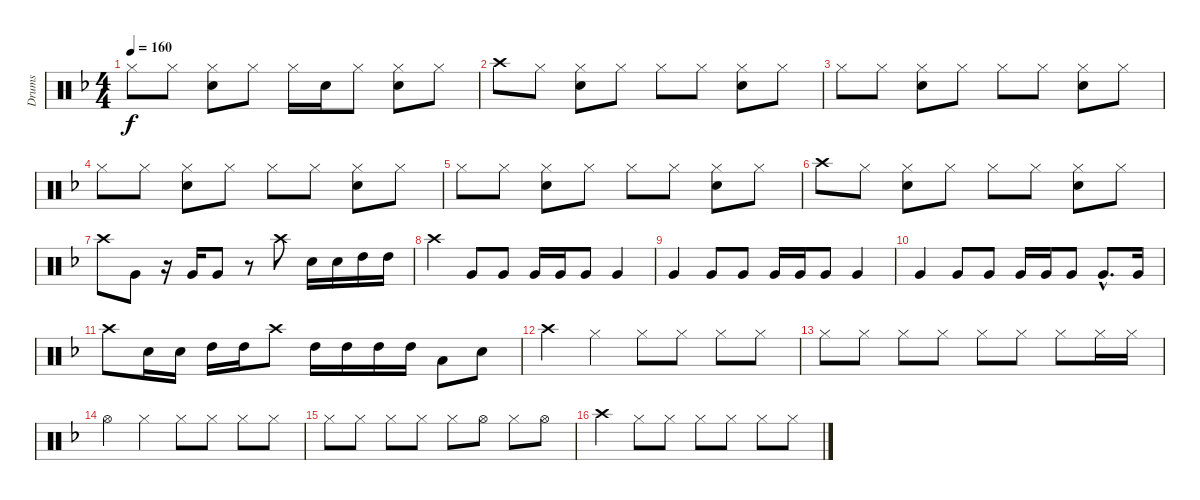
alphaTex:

\track ("Drums" "Drums") {instrument percussion}
\staff {score}
\articulation defaults
\ts (4 4)
\tempo 160
\clef neutral
\ks f "Hi-Hat (closed)".8{dy f} "Hi-Hat (closed)".8
("Hi-Hat (closed)" "Snare (hit) 2").8 "Hi-Hat (closed)".8 "Hi-Hat (closed)".16 "Snare (hit) 2".16 "Hi-Hat (closed)".8 ("Hi-Hat (closed)" "Snare (hit) 2").8 "Hi-Hat (closed)".8 |
"Crash high (hit)".8 "Hi-Hat (closed)".8 ("Hi-Hat (closed)" "Snare (hit) 2").8 "Hi-Hat (closed)".8 "Hi-Hat (closed)".8 "Hi-Hat (closed)".8 ("Hi-Hat (closed)" "Snare (hit) 2").8 "Hi-Hat (closed)".8 |
"Hi-Hat (closed)".8 "Hi-Hat (closed)".8 ("Hi-Hat (closed)" "Snare (hit) 2").8 "Hi-Hat (closed)".8 "Hi-Hat (closed)".8 "Hi-Hat (closed)".8 ("Hi-Hat (closed)" "Snare (hit) 2").8 "Hi-Hat (closed)".8 |
"Hi-Hat (closed)".8 "Hi-Hat (closed)".8 ("Hi-Hat (closed)" "Snare (hit) 2").8 "Hi-Hat (closed)".8 "Hi-Hat (closed)".8 "Hi-Hat (closed)".8 ("Hi-Hat (closed)" "Snare (hit) 2").8 "Hi-Hat (closed)".8 |
"Hi-Hat (closed)".8 "Hi-Hat (closed)".8 ("Hi-Hat (closed)" "Snare (hit) 2").8 "Hi-Hat (closed)".8 "Hi-Hat (closed)".8 "Hi-Hat (closed)".8 ("Hi-Hat (closed)" "Snare (hit) 2").8 "Hi-Hat (closed)".8 |
"Crash high (hit)".8 "Hi-Hat (closed)".8 ("Hi-Hat (closed)" "Snare (hit) 2").8 "Hi-Hat (closed)".8 "Hi-Hat (closed)".8 "Hi-Hat (closed)".8 ("Hi-Hat (closed)" "Snare (hit) 2").8 "Hi-Hat (closed)".8 |
"Crash high (hit)".8 "Very Low Tom (hit)".8 r.16 "Very Low Tom (hit)".16 "Very Low Tom (hit)".8 r.8 "Crash high (hit)".8 "Snare (hit) 2".16 "Snare (hit) 2".16 "High Tom (hit)".16 "High Tom (hit)".16 |
"Crash high (hit)".4 "Very Low Tom (hit)".8 "Very Low Tom (hit)".8 "Very Low Tom (hit)".16 "Very Low Tom (hit)".16 "Very Low Tom (hit)".8 "Very Low Tom (hit)".4 |
"Very Low Tom (hit)".4 "Very Low Tom (hit)".8 "Very Low Tom (hit)".8 "Very Low Tom (hit)".16 "Very Low Tom (hit)".16 "Very Low Tom (hit)".8 "Very Low Tom (hit)".4 |
"Very Low Tom (hit)".4 "Very Low Tom (hit)".8 "Very Low Tom (hit)".8 "Very Low Tom (hit)".16 "Very Low Tom (hit)".16 "Very Low Tom (hit)".8 "Very Low Tom (hit)"{hac}.8{d} "Very Low Tom (hit)".16 |
"Crash high (hit)".8 "Snare (hit) 2".16 "Snare (hit) 2".16 "High Tom (hit)".16 "High Tom (hit)".16 "Crash high (hit)".8 "High Tom (hit)".16 "High Tom (hit)".16 "High Tom (hit)".16 "High Tom (hit)".16 "Low Tom (hit)".8 "Snare (hit) 2".8 |
"Crash high (hit)".4 "Hi-Hat (closed)".4 "Hi-Hat (closed)".8 "Hi-Hat (closed)".8 "Hi-Hat (closed)".8 "Hi-Hat (closed)".8 |
"Hi-Hat (closed)".8 "Hi-Hat (closed)".8 "Hi-Hat (closed)".8 "Hi-Hat (closed)".8 "Hi-Hat (closed)".8 "Hi-Hat (closed)".8 "Hi-Hat (closed)".8 "Hi-Hat (closed)".16 "Hi-Hat (closed)".16 |
"Hi-Hat (open)".4 "Hi-Hat (closed)".4 "Hi-Hat (closed)".8 "Hi-Hat (closed)".8 "Hi-Hat (closed)".8 "Hi-Hat (closed)".8 |
"Hi-Hat (closed)".8 "Hi-Hat (closed)".8 "Hi-Hat (closed)".8 "Hi-Hat (closed)".8 "Hi-Hat (closed)".8 "Hi-Hat (open)".8 "Hi-Hat (closed)".8 "Hi-Hat (open)".8 |
"Crash high (hit)".4 "Hi-Hat (closed)".8 "Hi-Hat (closed)".8 "Hi-Hat (closed)".8 "Hi-Hat (closed)".8 "Hi-Hat (closed)".8 "Hi-Hat (closed)".8
